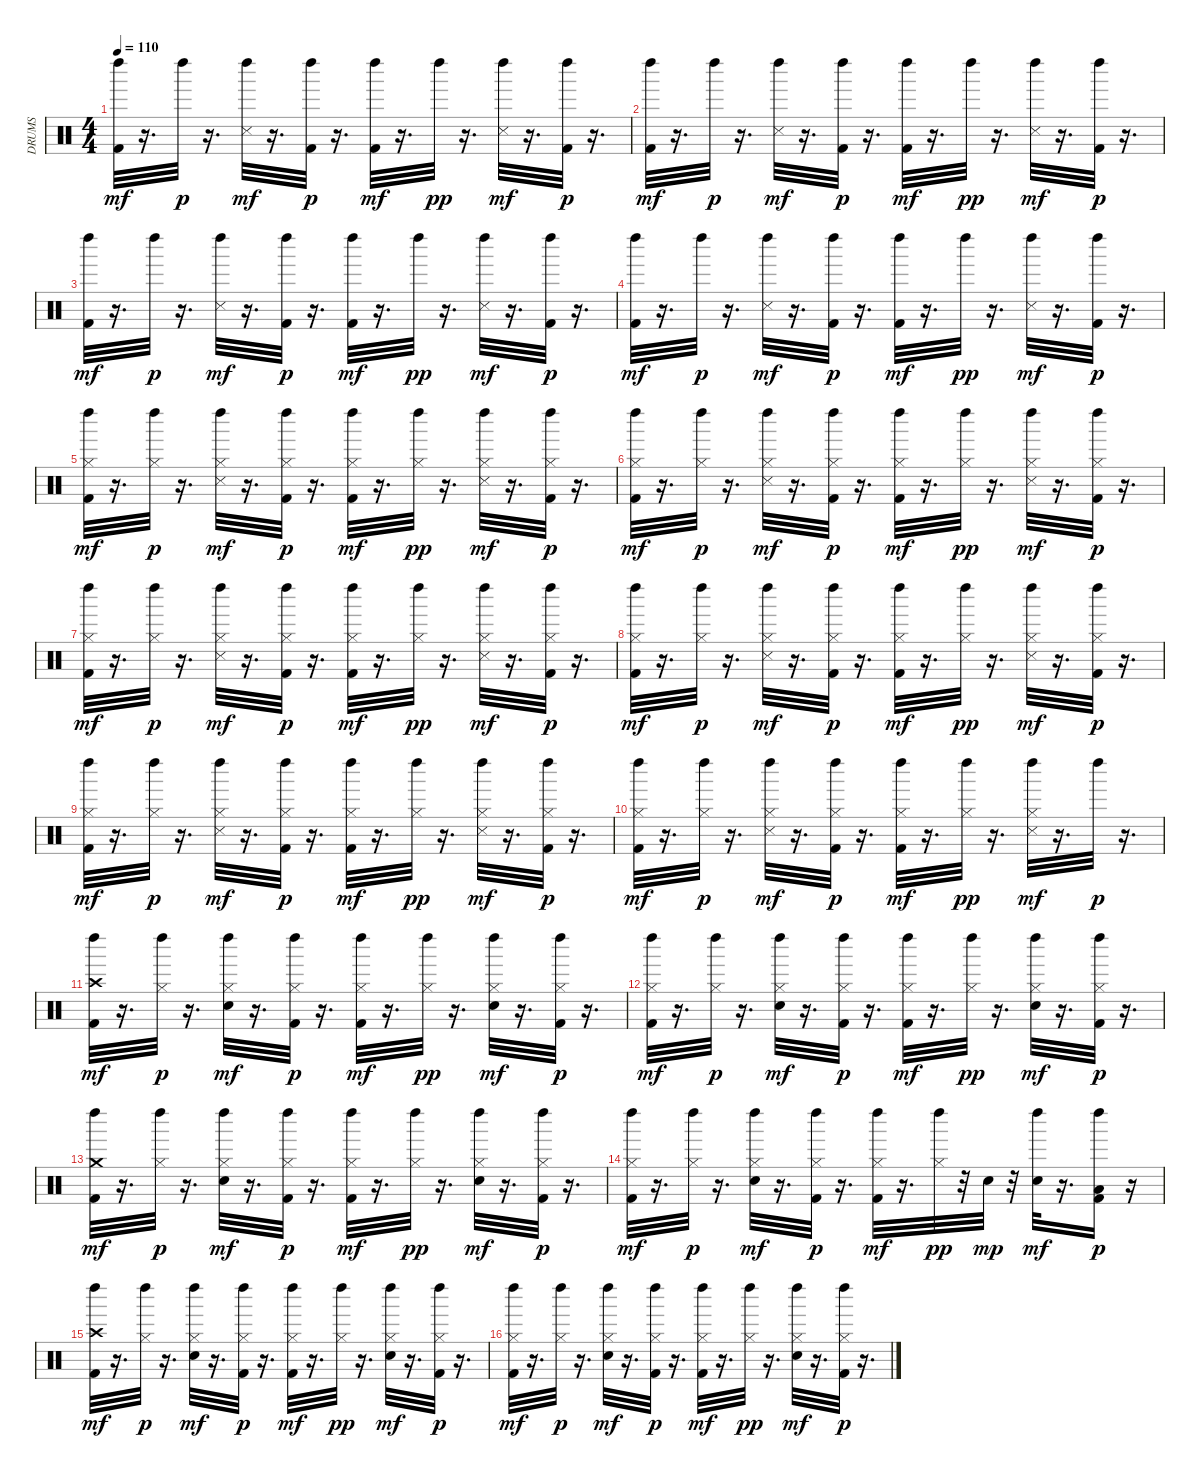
\track ("DRUMS" "DRUMS") {instrument percussion}
\staff {score}
\articulation defaults
\ts (4 4)
\tempo 110
\clef neutral
\ks c
("Kick (hit) 2" "Left Maraca (hit)").32{dy mf} r.16{d} "Left Maraca (hit)".32{dy p} r.16{d} ("Snare (side stick) 3" "Left Maraca (hit)").32{dy mf} r.16{d} ("Kick (hit) 2" "Left Maraca (hit)").32{dy p} r.16{d} ("Kick (hit) 2" "Left Maraca (hit)").32{dy mf} r.16{d} "Left Maraca (hit)".32{dy pp} r.16{d} ("Snare (side stick) 3" "Left Maraca (hit)").32{dy mf} r.16{d} ("Kick (hit) 2" "Left Maraca (hit)").32{dy p} r.16{d} |
("Kick (hit) 2" "Left Maraca (hit)").32{dy mf} r.16{d} "Left Maraca (hit)".32{dy p} r.16{d} ("Snare (side stick) 3" "Left Maraca (hit)").32{dy mf} r.16{d} ("Kick (hit) 2" "Left Maraca (hit)").32{dy p} r.16{d} ("Kick (hit) 2" "Left Maraca (hit)").32{dy mf} r.16{d} "Left Maraca (hit)".32{dy pp} r.16{d} ("Snare (side stick) 3" "Left Maraca (hit)").32{dy mf} r.16{d} ("Kick (hit) 2" "Left Maraca (hit)").32{dy p} r.16{d} |
("Kick (hit) 2" "Left Maraca (hit)").32{dy mf} r.16{d} "Left Maraca (hit)".32{dy p} r.16{d} ("Snare (side stick) 3" "Left Maraca (hit)").32{dy mf} r.16{d} ("Kick (hit) 2" "Left Maraca (hit)").32{dy p} r.16{d} ("Kick (hit) 2" "Left Maraca (hit)").32{dy mf} r.16{d} "Left Maraca (hit)".32{dy pp} r.16{d} ("Snare (side stick) 3" "Left Maraca (hit)").32{dy mf} r.16{d} ("Kick (hit) 2" "Left Maraca (hit)").32{dy p} r.16{d} |
("Kick (hit) 2" "Left Maraca (hit)").32{dy mf} r.16{d} "Left Maraca (hit)".32{dy p} r.16{d} ("Snare (side stick) 3" "Left Maraca (hit)").32{dy mf} r.16{d} ("Kick (hit) 2" "Left Maraca (hit)").32{dy p} r.16{d} ("Kick (hit) 2" "Left Maraca (hit)").32{dy mf} r.16{d} "Left Maraca (hit)".32{dy pp} r.16{d} ("Snare (side stick) 3" "Left Maraca (hit)").32{dy mf} r.16{d} ("Kick (hit) 2" "Left Maraca (hit)").32{dy p} r.16{d} |
("Kick (hit) 2" "Hi-Hat (closed)" "Left Maraca (hit)").32{dy mf} r.16{d} ("Hi-Hat (closed)" "Left Maraca (hit)").32{dy p} r.16{d} ("Snare (side stick) 3" "Hi-Hat (closed)" "Left Maraca (hit)").32{dy mf} r.16{d} ("Kick (hit) 2" "Hi-Hat (closed)" "Left Maraca (hit)").32{dy p} r.16{d} ("Kick (hit) 2" "Hi-Hat (closed)" "Left Maraca (hit)").32{dy mf} r.16{d} ("Hi-Hat (closed)" "Left Maraca (hit)").32{dy pp} r.16{d} ("Snare (side stick) 3" "Hi-Hat (closed)" "Left Maraca (hit)").32{dy mf} r.16{d} ("Kick (hit) 2" "Hi-Hat (closed)" "Left Maraca (hit)").32{dy p} r.16{d} |
("Kick (hit) 2" "Hi-Hat (closed)" "Left Maraca (hit)").32{dy mf} r.16{d} ("Hi-Hat (closed)" "Left Maraca (hit)").32{dy p} r.16{d} ("Snare (side stick) 3" "Hi-Hat (closed)" "Left Maraca (hit)").32{dy mf} r.16{d} ("Kick (hit) 2" "Hi-Hat (closed)" "Left Maraca (hit)").32{dy p} r.16{d} ("Kick (hit) 2" "Hi-Hat (closed)" "Left Maraca (hit)").32{dy mf} r.16{d} ("Hi-Hat (closed)" "Left Maraca (hit)").32{dy pp} r.16{d} ("Snare (side stick) 3" "Hi-Hat (closed)" "Left Maraca (hit)").32{dy mf} r.16{d} ("Kick (hit) 2" "Hi-Hat (closed)" "Left Maraca (hit)").32{dy p} r.16{d} |
("Kick (hit) 2" "Hi-Hat (closed)" "Left Maraca (hit)").32{dy mf} r.16{d} ("Hi-Hat (closed)" "Left Maraca (hit)").32{dy p} r.16{d} ("Snare (side stick) 3" "Hi-Hat (closed)" "Left Maraca (hit)").32{dy mf} r.16{d} ("Kick (hit) 2" "Hi-Hat (closed)" "Left Maraca (hit)").32{dy p} r.16{d} ("Kick (hit) 2" "Hi-Hat (closed)" "Left Maraca (hit)").32{dy mf} r.16{d} ("Hi-Hat (closed)" "Left Maraca (hit)").32{dy pp} r.16{d} ("Snare (side stick) 3" "Hi-Hat (closed)" "Left Maraca (hit)").32{dy mf} r.16{d} ("Kick (hit) 2" "Hi-Hat (closed)" "Left Maraca (hit)").32{dy p} r.16{d} |
("Kick (hit) 2" "Hi-Hat (closed)" "Left Maraca (hit)").32{dy mf} r.16{d} ("Hi-Hat (closed)" "Left Maraca (hit)").32{dy p} r.16{d} ("Snare (side stick) 3" "Hi-Hat (closed)" "Left Maraca (hit)").32{dy mf} r.16{d} ("Kick (hit) 2" "Hi-Hat (closed)" "Left Maraca (hit)").32{dy p} r.16{d} ("Kick (hit) 2" "Hi-Hat (closed)" "Left Maraca (hit)").32{dy mf} r.16{d} ("Hi-Hat (closed)" "Left Maraca (hit)").32{dy pp} r.16{d} ("Snare (side stick) 3" "Hi-Hat (closed)" "Left Maraca (hit)").32{dy mf} r.16{d} ("Kick (hit) 2" "Hi-Hat (closed)" "Left Maraca (hit)").32{dy p} r.16{d} |
("Kick (hit) 2" "Hi-Hat (closed)" "Left Maraca (hit)").32{dy mf} r.16{d} ("Hi-Hat (closed)" "Left Maraca (hit)").32{dy p} r.16{d} ("Snare (side stick) 3" "Hi-Hat (closed)" "Left Maraca (hit)").32{dy mf} r.16{d} ("Kick (hit) 2" "Hi-Hat (closed)" "Left Maraca (hit)").32{dy p} r.16{d} ("Kick (hit) 2" "Hi-Hat (closed)" "Left Maraca (hit)").32{dy mf} r.16{d} ("Hi-Hat (closed)" "Left Maraca (hit)").32{dy pp} r.16{d} ("Snare (side stick) 3" "Hi-Hat (closed)" "Left Maraca (hit)").32{dy mf} r.16{d} ("Kick (hit) 2" "Hi-Hat (closed)" "Left Maraca (hit)").32{dy p} r.16{d} |
("Kick (hit) 2" "Hi-Hat (closed)" "Left Maraca (hit)").32{dy mf} r.16{d} ("Hi-Hat (closed)" "Left Maraca (hit)").32{dy p} r.16{d} ("Snare (side stick) 3" "Hi-Hat (closed)" "Left Maraca (hit)").32{dy mf} r.16{d} ("Kick (hit) 2" "Hi-Hat (closed)" "Left Maraca (hit)").32{dy p} r.16{d} ("Kick (hit) 2" "Hi-Hat (closed)" "Left Maraca (hit)").32{dy mf} r.16{d} ("Hi-Hat (closed)" "Left Maraca (hit)").32{dy pp} r.16{d} ("Snare (side stick) 3" "Hi-Hat (closed)" "Left Maraca (hit)").32{dy mf} r.16{d} "Left Maraca (hit)".32{dy p} r.16{d} |
("Kick (hit) 2" "Crash high (hit)" "Left Maraca (hit)").32{dy mf} r.16{d} ("Hi-Hat (closed)" "Left Maraca (hit)").32{dy p} r.16{d} ("Snare (hit) 2" "Hi-Hat (closed)" "Left Maraca (hit)").32{dy mf} r.16{d} ("Kick (hit) 2" "Hi-Hat (closed)" "Left Maraca (hit)").32{dy p} r.16{d} ("Kick (hit) 2" "Hi-Hat (closed)" "Left Maraca (hit)").32{dy mf} r.16{d} ("Hi-Hat (closed)" "Left Maraca (hit)").32{dy pp} r.16{d} ("Snare (hit) 2" "Hi-Hat (closed)" "Left Maraca (hit)").32{dy mf} r.16{d} ("Kick (hit) 2" "Hi-Hat (closed)" "Left Maraca (hit)").32{dy p} r.16{d} |
("Kick (hit) 2" "Hi-Hat (closed)" "Left Maraca (hit)").32{dy mf} r.16{d} ("Hi-Hat (closed)" "Left Maraca (hit)").32{dy p} r.16{d} ("Snare (hit) 2" "Hi-Hat (closed)" "Left Maraca (hit)").32{dy mf} r.16{d} ("Kick (hit) 2" "Hi-Hat (closed)" "Left Maraca (hit)").32{dy p} r.16{d} ("Kick (hit) 2" "Hi-Hat (closed)" "Left Maraca (hit)").32{dy mf} r.16{d} ("Hi-Hat (closed)" "Left Maraca (hit)").32{dy pp} r.16{d} ("Snare (hit) 2" "Hi-Hat (closed)" "Left Maraca (hit)").32{dy mf} r.16{d} ("Kick (hit) 2" "Hi-Hat (closed)" "Left Maraca (hit)").32{dy p} r.16{d} |
("Kick (hit) 2" "Crash medium (hit)" "Left Maraca (hit)").32{dy mf} r.16{d} ("Hi-Hat (closed)" "Left Maraca (hit)").32{dy p} r.16{d} ("Snare (hit) 2" "Hi-Hat (closed)" "Left Maraca (hit)").32{dy mf} r.16{d} ("Kick (hit) 2" "Hi-Hat (closed)" "Left Maraca (hit)").32{dy p} r.16{d} ("Kick (hit) 2" "Hi-Hat (closed)" "Left Maraca (hit)").32{dy mf} r.16{d} ("Hi-Hat (closed)" "Left Maraca (hit)").32{dy pp} r.16{d} ("Snare (hit) 2" "Hi-Hat (closed)" "Left Maraca (hit)").32{dy mf} r.16{d} ("Kick (hit) 2" "Hi-Hat (closed)" "Left Maraca (hit)").32{dy p} r.16{d} |
("Kick (hit) 2" "Hi-Hat (closed)" "Left Maraca (hit)").32{dy mf} r.16{d} ("Hi-Hat (closed)" "Left Maraca (hit)").32{dy p} r.16{d} ("Snare (hit) 2" "Hi-Hat (closed)" "Left Maraca (hit)").32{dy mf} r.16{d} ("Kick (hit) 2" "Hi-Hat (closed)" "Left Maraca (hit)").32{dy p} r.16{d} ("Kick (hit) 2" "Hi-Hat (closed)" "Left Maraca (hit)").32{dy mf} r.16{d} ("Hi-Hat (closed)" "Left Maraca (hit)").32{dy pp} r.32 "Snare (hit) 2".32{dy mp} r.32 ("Snare (hit) 2" "Left Maraca (hit)").32{dy mf} r.16{d} ("Kick (hit) 2" "Low Tom (hit)" "Left Maraca (hit)").16{dy p} r.16 |
("Kick (hit) 2" "Crash high (hit)" "Left Maraca (hit)").32{dy mf} r.16{d} ("Hi-Hat (closed)" "Left Maraca (hit)").32{dy p} r.16{d} ("Snare (hit) 2" "Hi-Hat (closed)" "Left Maraca (hit)").32{dy mf} r.16{d} ("Kick (hit) 2" "Hi-Hat (closed)" "Left Maraca (hit)").32{dy p} r.16{d} ("Kick (hit) 2" "Hi-Hat (closed)" "Left Maraca (hit)").32{dy mf} r.16{d} ("Hi-Hat (closed)" "Left Maraca (hit)").32{dy pp} r.16{d} ("Snare (hit) 2" "Hi-Hat (closed)" "Left Maraca (hit)").32{dy mf} r.16{d} ("Kick (hit) 2" "Hi-Hat (closed)" "Left Maraca (hit)").32{dy p} r.16{d} |
("Kick (hit) 2" "Hi-Hat (closed)" "Left Maraca (hit)").32{dy mf} r.16{d} ("Hi-Hat (closed)" "Left Maraca (hit)").32{dy p} r.16{d} ("Snare (hit) 2" "Hi-Hat (closed)" "Left Maraca (hit)").32{dy mf} r.16{d} ("Kick (hit) 2" "Hi-Hat (closed)" "Left Maraca (hit)").32{dy p} r.16{d} ("Kick (hit) 2" "Hi-Hat (closed)" "Left Maraca (hit)").32{dy mf} r.16{d} ("Hi-Hat (closed)" "Left Maraca (hit)").32{dy pp} r.16{d} ("Snare (hit) 2" "Hi-Hat (closed)" "Left Maraca (hit)").32{dy mf} r.16{d} ("Kick (hit) 2" "Hi-Hat (closed)" "Left Maraca (hit)").32{dy p} r.16{d}
